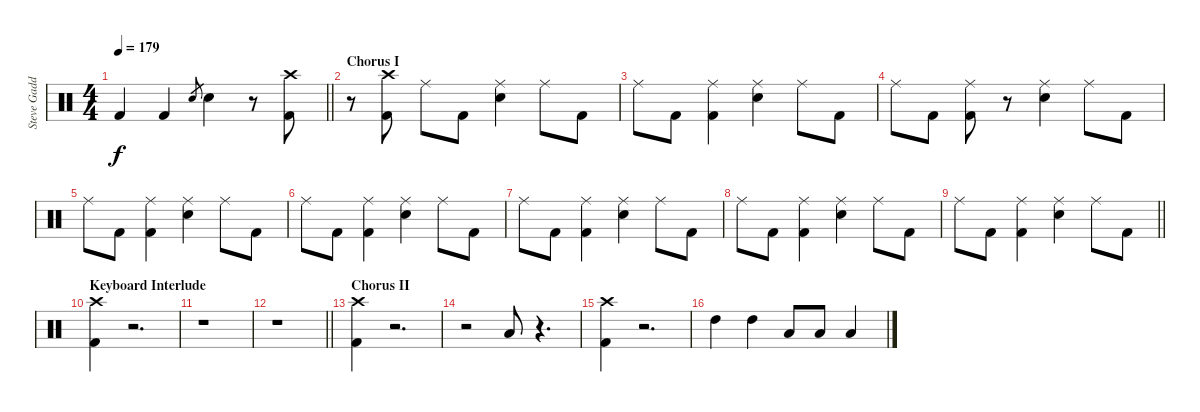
\track ("Steve Gadd" "Steve Gadd") {instrument percussion}
\staff {score}
\articulation defaults
\ts (4 4)
\tempo 179
\clef neutral
\barLineRight lightlight
\ks c "Kick (hit) 2".4{dy f} "Kick (hit) 2".4 "Electric Snare (hit)".8{gr} "Electric Snare (hit)".4
r.8 ("Crash high (hit)" "Kick (hit) 2").8 |
\section ("" "Chorus I")
r.8 ("Crash high (hit)" "Kick (hit) 2").8 "Ride (middle)".8 "Kick (hit) 2".8 ("Ride (middle)" "Electric Snare (hit)").4 "Ride (middle)".8 "Kick (hit) 2".8 |
"Ride (middle)".8 "Kick (hit) 2".8 ("Ride (middle)" "Kick (hit) 2").4 ("Ride (middle)" "Electric Snare (hit)").4 "Ride (middle)".8 "Kick (hit) 2".8 |
"Ride (middle)".8 "Kick (hit) 2".8 ("Ride (middle)" "Kick (hit) 2").8 r.8 ("Ride (middle)" "Electric Snare (hit)").4 "Ride (middle)".8 "Kick (hit) 2".8 |
"Ride (middle)".8 "Kick (hit) 2".8 ("Ride (middle)" "Kick (hit) 2").4 ("Ride (middle)" "Electric Snare (hit)").4 "Ride (middle)".8 "Kick (hit) 2".8 |
"Ride (middle)".8 "Kick (hit) 2".8 ("Ride (middle)" "Kick (hit) 2").4 ("Ride (middle)" "Electric Snare (hit)").4 "Ride (middle)".8 "Kick (hit) 2".8 |
"Ride (middle)".8 "Kick (hit) 2".8 ("Ride (middle)" "Kick (hit) 2").4 ("Ride (middle)" "Electric Snare (hit)").4 "Ride (middle)".8 "Kick (hit) 2".8 |
"Ride (middle)".8 "Kick (hit) 2".8 ("Ride (middle)" "Kick (hit) 2").4 ("Ride (middle)" "Electric Snare (hit)").4 "Ride (middle)".8 "Kick (hit) 2".8 |
\barLineRight lightlight "Ride (middle)".8 "Kick (hit) 2".8
("Ride (middle)" "Kick (hit) 2").4 ("Ride (middle)" "Electric Snare (hit)").4 "Ride (middle)".8 "Kick (hit) 2".8 |
\section ("" "Keyboard Interlude")
("Crash high (hit)" "Kick (hit) 2").4 r.2{d} |
r.1 |
\barLineRight lightlight
r.1 |
\section ("" "Chorus II")
("Crash high (hit)" "Kick (hit) 2").4 r.2{d} |
r.2 "Low Tom (hit)".8 r.4{d} |
("Crash high (hit)" "Kick (hit) 2").4 r.2{d} |
"High Tom (hit)".4 "High Tom (hit)".4 "Low Tom (hit)".8 "Low Tom (hit)".8 "Low Floor Tom (hit)".4
